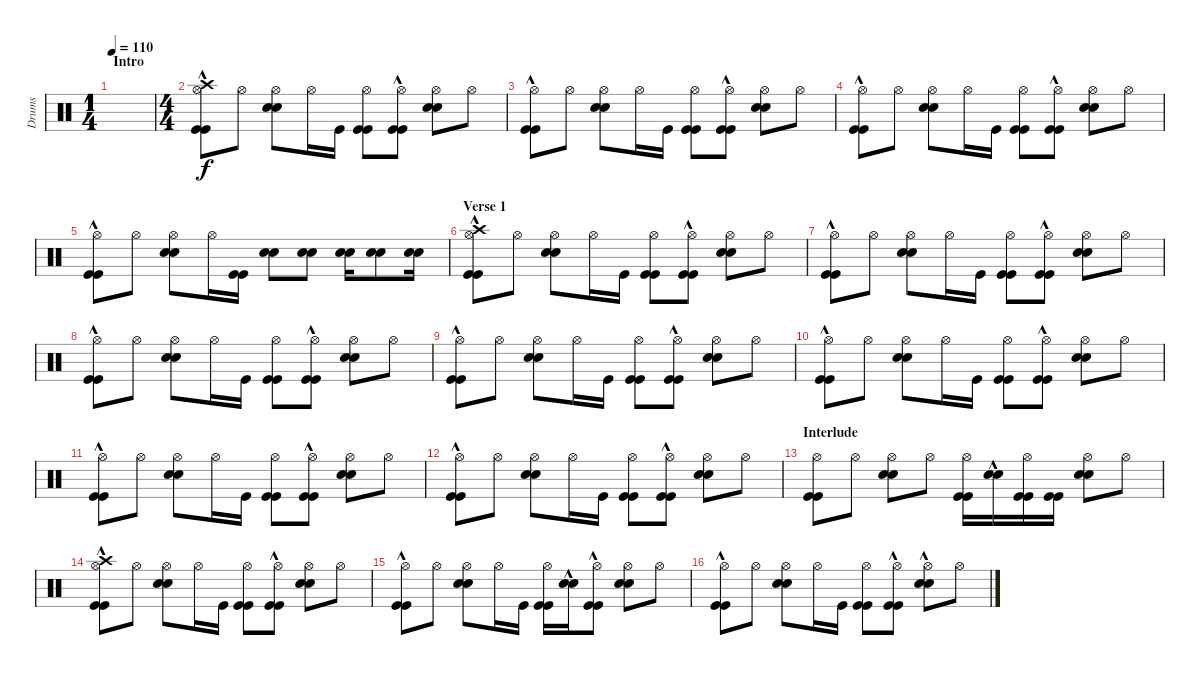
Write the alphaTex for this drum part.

\track ("Drums" "Drums") {instrument percussion}
\staff {score}
\articulation defaults
\ts (1 4)
\section ("" "Intro")
\tempo 110
\clef neutral
\ks c
|
\ts (4 4)
("Kick (hit)"{hac} "Kick (hit)"{hac} "Hi-Hat (open)" "Crash high (hit)").8 "Hi-Hat (open)".8 ("Snare (hit) 2" "Snare (hit) 2" "Hi-Hat (open)").8 "Hi-Hat (open)".16 "Kick (hit)".16 ("Kick (hit)" "Kick (hit)" "Hi-Hat (open)").8 ("Kick (hit)"{hac} "Kick (hit)"{hac} "Hi-Hat (open)").8 ("Snare (hit) 2" "Snare (hit) 2" "Hi-Hat (open)").8 "Hi-Hat (open)".8 |
("Kick (hit)"{hac} "Kick (hit)"{hac} "Hi-Hat (open)").8 "Hi-Hat (open)".8 ("Snare (hit) 2" "Snare (hit) 2" "Hi-Hat (open)").8 "Hi-Hat (open)".16 "Kick (hit)".16 ("Kick (hit)" "Kick (hit)" "Hi-Hat (open)").8 ("Kick (hit)"{hac} "Kick (hit)"{hac} "Hi-Hat (open)").8 ("Snare (hit) 2" "Snare (hit) 2" "Hi-Hat (open)").8 "Hi-Hat (open)".8 |
("Kick (hit)"{hac} "Kick (hit)"{hac} "Hi-Hat (open)").8 "Hi-Hat (open)".8 ("Snare (hit) 2" "Snare (hit) 2" "Hi-Hat (open)").8 "Hi-Hat (open)".16 "Kick (hit)".16 ("Kick (hit)" "Kick (hit)" "Hi-Hat (open)").8 ("Kick (hit)"{hac} "Kick (hit)"{hac} "Hi-Hat (open)").8 ("Snare (hit) 2" "Snare (hit) 2" "Hi-Hat (open)").8 "Hi-Hat (open)".8 |
("Kick (hit)"{hac} "Kick (hit)"{hac} "Hi-Hat (open)").8 "Hi-Hat (open)".8 ("Snare (hit) 2" "Snare (hit) 2" "Hi-Hat (open)").8 "Hi-Hat (open)".16 ("Kick (hit)" "Kick (hit)").16 ("Snare (hit) 2" "Snare (hit) 2").8 ("Snare (hit) 2" "Snare (hit) 2").8 ("Snare (hit) 2" "Snare (hit) 2").16 ("Snare (hit) 2" "Snare (hit) 2").8 ("Snare (hit) 2" "Snare (hit) 2").16 |
\section ("" "Verse 1")
("Kick (hit)"{hac} "Kick (hit)"{hac} "Hi-Hat (open)" "Crash high (hit)").8 "Hi-Hat (open)".8 ("Snare (hit) 2" "Snare (hit) 2" "Hi-Hat (open)").8 "Hi-Hat (open)".16 "Kick (hit)".16 ("Kick (hit)" "Kick (hit)" "Hi-Hat (open)").8 ("Kick (hit)"{hac} "Kick (hit)"{hac} "Hi-Hat (open)").8 ("Snare (hit) 2" "Snare (hit) 2" "Hi-Hat (open)").8 "Hi-Hat (open)".8 |
("Kick (hit)"{hac} "Kick (hit)"{hac} "Hi-Hat (open)").8 "Hi-Hat (open)".8 ("Snare (hit) 2" "Snare (hit) 2" "Hi-Hat (open)").8 "Hi-Hat (open)".16 "Kick (hit)".16 ("Kick (hit)" "Kick (hit)" "Hi-Hat (open)").8 ("Kick (hit)"{hac} "Kick (hit)"{hac} "Hi-Hat (open)").8 ("Snare (hit) 2" "Snare (hit) 2" "Hi-Hat (open)").8 "Hi-Hat (open)".8 |
("Kick (hit)"{hac} "Kick (hit)"{hac} "Hi-Hat (open)").8 "Hi-Hat (open)".8 ("Snare (hit) 2" "Snare (hit) 2" "Hi-Hat (open)").8 "Hi-Hat (open)".16 "Kick (hit)".16 ("Kick (hit)" "Kick (hit)" "Hi-Hat (open)").8 ("Kick (hit)"{hac} "Kick (hit)"{hac} "Hi-Hat (open)").8 ("Snare (hit) 2" "Snare (hit) 2" "Hi-Hat (open)").8 "Hi-Hat (open)".8 |
("Kick (hit)"{hac} "Kick (hit)"{hac} "Hi-Hat (open)").8 "Hi-Hat (open)".8 ("Snare (hit) 2" "Snare (hit) 2" "Hi-Hat (open)").8 "Hi-Hat (open)".16 "Kick (hit)".16 ("Kick (hit)" "Kick (hit)" "Hi-Hat (open)").8 ("Kick (hit)"{hac} "Kick (hit)"{hac} "Hi-Hat (open)").8 ("Snare (hit) 2" "Snare (hit) 2" "Hi-Hat (open)").8 "Hi-Hat (open)".8 |
("Kick (hit)"{hac} "Kick (hit)"{hac} "Hi-Hat (open)").8 "Hi-Hat (open)".8 ("Snare (hit) 2" "Snare (hit) 2" "Hi-Hat (open)").8 "Hi-Hat (open)".16 "Kick (hit)".16 ("Kick (hit)" "Kick (hit)" "Hi-Hat (open)").8 ("Kick (hit)"{hac} "Kick (hit)"{hac} "Hi-Hat (open)").8 ("Snare (hit) 2" "Snare (hit) 2" "Hi-Hat (open)").8 "Hi-Hat (open)".8 |
("Kick (hit)"{hac} "Kick (hit)"{hac} "Hi-Hat (open)").8 "Hi-Hat (open)".8 ("Snare (hit) 2" "Snare (hit) 2" "Hi-Hat (open)").8 "Hi-Hat (open)".16 "Kick (hit)".16 ("Kick (hit)" "Kick (hit)" "Hi-Hat (open)").8 ("Kick (hit)"{hac} "Kick (hit)"{hac} "Hi-Hat (open)").8 ("Snare (hit) 2" "Snare (hit) 2" "Hi-Hat (open)").8 "Hi-Hat (open)".8 |
("Kick (hit)"{hac} "Kick (hit)"{hac} "Hi-Hat (open)").8 "Hi-Hat (open)".8 ("Snare (hit) 2" "Snare (hit) 2" "Hi-Hat (open)").8 "Hi-Hat (open)".16 "Kick (hit)".16 ("Kick (hit)" "Kick (hit)" "Hi-Hat (open)").8 ("Kick (hit)"{hac} "Kick (hit)"{hac} "Hi-Hat (open)").8 ("Snare (hit) 2" "Snare (hit) 2" "Hi-Hat (open)").8 "Hi-Hat (open)".8 |
\section ("" "Interlude")
("Kick (hit)" "Kick (hit)" "Hi-Hat (open)").8 "Hi-Hat (open)".8 ("Snare (hit) 2" "Snare (hit) 2" "Hi-Hat (open)").8 "Hi-Hat (open)".8 ("Kick (hit)" "Kick (hit)" "Hi-Hat (open)").16 ("Snare (hit) 2"{hac} "Snare (hit) 2"{hac}).16 ("Kick (hit)" "Kick (hit)" "Hi-Hat (open)").16 ("Kick (hit)" "Kick (hit)").16 ("Snare (hit) 2" "Snare (hit) 2" "Hi-Hat (open)").8 "Hi-Hat (open)".8 |
("Kick (hit)"{hac} "Kick (hit)"{hac} "Hi-Hat (open)" "Crash high (hit)").8 "Hi-Hat (open)".8 ("Snare (hit) 2" "Snare (hit) 2" "Hi-Hat (open)").8 "Hi-Hat (open)".16 "Kick (hit)".16 ("Kick (hit)" "Kick (hit)" "Hi-Hat (open)").8 ("Kick (hit)"{hac} "Kick (hit)"{hac} "Hi-Hat (open)").8 ("Snare (hit) 2" "Snare (hit) 2" "Hi-Hat (open)").8 "Hi-Hat (open)".8 |
("Kick (hit)"{hac} "Kick (hit)"{hac} "Hi-Hat (open)").8 "Hi-Hat (open)".8 ("Snare (hit) 2" "Snare (hit) 2" "Hi-Hat (open)").8 "Hi-Hat (open)".16 "Kick (hit)".16 ("Kick (hit)" "Kick (hit)" "Hi-Hat (open)").16 ("Snare (hit) 2"{hac} "Snare (hit) 2"{hac}).16 ("Kick (hit)"{hac} "Kick (hit)"{hac} "Hi-Hat (open)").8 ("Snare (hit) 2" "Snare (hit) 2" "Hi-Hat (open)").8 "Hi-Hat (open)".8 |
("Kick (hit)"{hac} "Kick (hit)"{hac} "Hi-Hat (open)").8 "Hi-Hat (open)".8 ("Snare (hit) 2" "Snare (hit) 2" "Hi-Hat (open)").8 "Hi-Hat (open)".16 "Kick (hit)".16 ("Kick (hit)" "Kick (hit)" "Hi-Hat (open)").8 ("Kick (hit)"{hac} "Kick (hit)"{hac} "Hi-Hat (open)").8 ("Snare (hit) 2"{hac} "Snare (hit) 2"{hac} "Hi-Hat (open)").8 "Hi-Hat (open)".8
